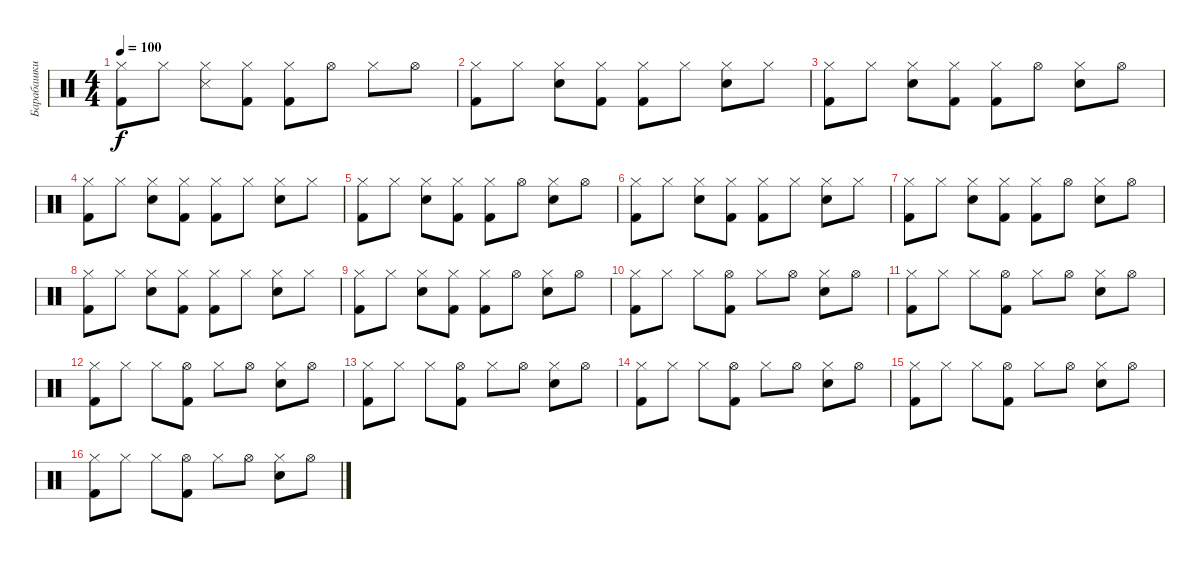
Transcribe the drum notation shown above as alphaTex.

\track ("Барабашки" "Барабашки") {instrument percussion}
\staff {score}
\articulation defaults
\ts (4 4)
\tempo 100
\clef neutral
\ks c
("Hi-Hat (closed)" "Kick (hit) 2").8{dy f} "Hi-Hat (closed)".8 ("Hi-Hat (closed)" "Snare (side stick) 3").8 ("Hi-Hat (closed)" "Kick (hit) 2").8 ("Hi-Hat (closed)" "Kick (hit) 2").8 "Hi-Hat (open)".8 "Hi-Hat (closed)".8 "Hi-Hat (open)".8 |
("Hi-Hat (closed)" "Kick (hit) 2").8 "Hi-Hat (closed)".8 ("Hi-Hat (closed)" "Electric Snare (hit)").8 ("Hi-Hat (closed)" "Kick (hit) 2").8 ("Hi-Hat (closed)" "Kick (hit) 2").8 "Hi-Hat (closed)".8 ("Hi-Hat (closed)" "Electric Snare (hit)").8 "Hi-Hat (closed)".8 |
("Hi-Hat (closed)" "Kick (hit) 2").8 "Hi-Hat (closed)".8 ("Hi-Hat (closed)" "Electric Snare (hit)").8 ("Hi-Hat (closed)" "Kick (hit) 2").8 ("Hi-Hat (closed)" "Kick (hit) 2").8 "Hi-Hat (open)".8 ("Hi-Hat (closed)" "Electric Snare (hit)").8 "Hi-Hat (open)".8 |
("Hi-Hat (closed)" "Kick (hit) 2").8 "Hi-Hat (closed)".8 ("Hi-Hat (closed)" "Electric Snare (hit)").8 ("Hi-Hat (closed)" "Kick (hit) 2").8 ("Hi-Hat (closed)" "Kick (hit) 2").8 "Hi-Hat (closed)".8 ("Hi-Hat (closed)" "Electric Snare (hit)").8 "Hi-Hat (closed)".8 |
("Hi-Hat (closed)" "Kick (hit) 2").8 "Hi-Hat (closed)".8 ("Hi-Hat (closed)" "Electric Snare (hit)").8 ("Hi-Hat (closed)" "Kick (hit) 2").8 ("Hi-Hat (closed)" "Kick (hit) 2").8 "Hi-Hat (open)".8 ("Hi-Hat (closed)" "Electric Snare (hit)").8 "Hi-Hat (open)".8 |
("Hi-Hat (closed)" "Kick (hit) 2").8 "Hi-Hat (closed)".8 ("Hi-Hat (closed)" "Electric Snare (hit)").8 ("Hi-Hat (closed)" "Kick (hit) 2").8 ("Hi-Hat (closed)" "Kick (hit) 2").8 "Hi-Hat (closed)".8 ("Hi-Hat (closed)" "Electric Snare (hit)").8 "Hi-Hat (closed)".8 |
("Hi-Hat (closed)" "Kick (hit) 2").8 "Hi-Hat (closed)".8 ("Hi-Hat (closed)" "Electric Snare (hit)").8 ("Hi-Hat (closed)" "Kick (hit) 2").8 ("Hi-Hat (closed)" "Kick (hit) 2").8 "Hi-Hat (open)".8 ("Hi-Hat (closed)" "Electric Snare (hit)").8 "Hi-Hat (open)".8 |
("Hi-Hat (closed)" "Kick (hit) 2").8 "Hi-Hat (closed)".8 ("Hi-Hat (closed)" "Electric Snare (hit)").8 ("Hi-Hat (closed)" "Kick (hit) 2").8 ("Hi-Hat (closed)" "Kick (hit) 2").8 "Hi-Hat (closed)".8 ("Hi-Hat (closed)" "Electric Snare (hit)").8 "Hi-Hat (closed)".8 |
("Hi-Hat (closed)" "Kick (hit) 2").8 "Hi-Hat (closed)".8 ("Hi-Hat (closed)" "Electric Snare (hit)").8 ("Hi-Hat (closed)" "Kick (hit) 2").8 ("Hi-Hat (closed)" "Kick (hit) 2").8 "Hi-Hat (open)".8 ("Hi-Hat (closed)" "Electric Snare (hit)").8 "Hi-Hat (open)".8 |
("Hi-Hat (closed)" "Kick (hit) 2").8 "Hi-Hat (closed)".8 "Hi-Hat (closed)".8 ("Hi-Hat (open)" "Kick (hit) 2").8 "Hi-Hat (closed)".8 "Hi-Hat (open)".8 ("Hi-Hat (closed)" "Electric Snare (hit)").8 "Hi-Hat (open)".8 |
("Hi-Hat (closed)" "Kick (hit) 2").8 "Hi-Hat (closed)".8 "Hi-Hat (closed)".8 ("Hi-Hat (open)" "Kick (hit) 2").8 "Hi-Hat (closed)".8 "Hi-Hat (open)".8 ("Hi-Hat (closed)" "Electric Snare (hit)").8 "Hi-Hat (open)".8 |
("Hi-Hat (closed)" "Kick (hit) 2").8 "Hi-Hat (closed)".8 "Hi-Hat (closed)".8 ("Hi-Hat (open)" "Kick (hit) 2").8 "Hi-Hat (closed)".8 "Hi-Hat (open)".8 ("Hi-Hat (closed)" "Electric Snare (hit)").8 "Hi-Hat (open)".8 |
("Hi-Hat (closed)" "Kick (hit) 2").8 "Hi-Hat (closed)".8 "Hi-Hat (closed)".8 ("Hi-Hat (open)" "Kick (hit) 2").8 "Hi-Hat (closed)".8 "Hi-Hat (open)".8 ("Hi-Hat (closed)" "Electric Snare (hit)").8 "Hi-Hat (open)".8 |
("Hi-Hat (closed)" "Kick (hit) 2").8 "Hi-Hat (closed)".8 "Hi-Hat (closed)".8 ("Hi-Hat (open)" "Kick (hit) 2").8 "Hi-Hat (closed)".8 "Hi-Hat (open)".8 ("Hi-Hat (closed)" "Electric Snare (hit)").8 "Hi-Hat (open)".8 |
("Hi-Hat (closed)" "Kick (hit) 2").8 "Hi-Hat (closed)".8 "Hi-Hat (closed)".8 ("Hi-Hat (open)" "Kick (hit) 2").8 "Hi-Hat (closed)".8 "Hi-Hat (open)".8 ("Hi-Hat (closed)" "Electric Snare (hit)").8 "Hi-Hat (open)".8 |
("Hi-Hat (closed)" "Kick (hit) 2").8 "Hi-Hat (closed)".8 "Hi-Hat (closed)".8 ("Hi-Hat (open)" "Kick (hit) 2").8 "Hi-Hat (closed)".8 "Hi-Hat (open)".8 ("Hi-Hat (closed)" "Electric Snare (hit)").8 "Hi-Hat (open)".8
